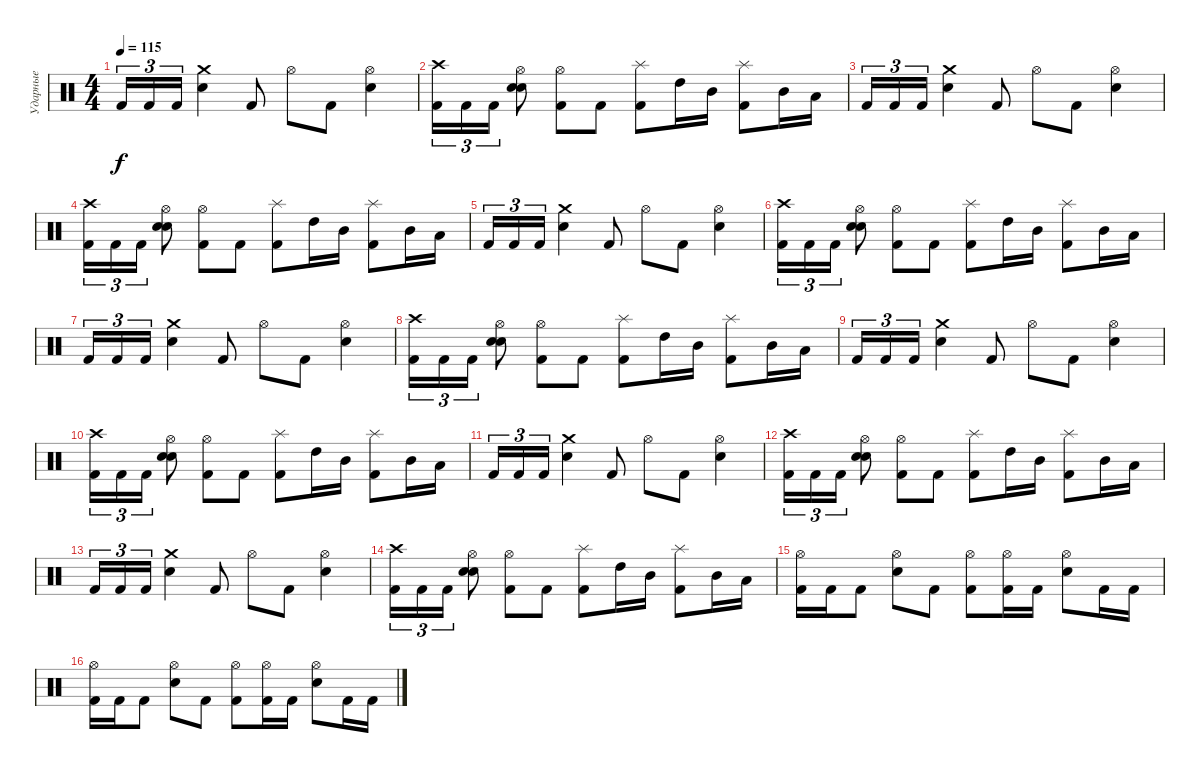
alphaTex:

\track ("Ударные" "Ударные") {instrument percussion}
\staff {score}
\articulation defaults
\ts (4 4)
\tempo 115
\clef neutral
\ks c "Kick (hit) 2".16{tu (3 2) dy f} "Kick (hit) 2".16{tu (3 2)} "Kick (hit) 2".16{tu (3 2)}
("Electric Snare (hit)" "Crash medium (hit)").4 "Kick (hit) 2".8 "Hi-Hat (open)".8 "Kick (hit) 2".8 ("Hi-Hat (open)" "Electric Snare (hit)").4 |
("Kick (hit) 2" "Crash high (hit)").16{tu (3 2)} "Kick (hit) 2".16{tu (3 2)} "Kick (hit) 2".16{tu (3 2)} ("Electric Snare (hit)" "Hi-Hat (open)" "Electric Snare (hit)").8 ("Kick (hit) 2" "Hi-Hat (open)").8 "Kick (hit) 2".8 ("Kick (hit) 2" "Splash (hit)").8 "High Tom (hit)".16 "Mid Tom (hit)".16 ("Kick (hit) 2" "Splash (hit)").8 "Mid Tom (hit)".16 "Low Tom (hit)".16 |
"Kick (hit) 2".16{tu (3 2)} "Kick (hit) 2".16{tu (3 2)} "Kick (hit) 2".16{tu (3 2)} ("Electric Snare (hit)" "Crash medium (hit)").4 "Kick (hit) 2".8 "Hi-Hat (open)".8 "Kick (hit) 2".8 ("Hi-Hat (open)" "Electric Snare (hit)").4 |
("Kick (hit) 2" "Crash high (hit)").16{tu (3 2)} "Kick (hit) 2".16{tu (3 2)} "Kick (hit) 2".16{tu (3 2)} ("Electric Snare (hit)" "Hi-Hat (open)" "Electric Snare (hit)").8 ("Kick (hit) 2" "Hi-Hat (open)").8 "Kick (hit) 2".8 ("Kick (hit) 2" "Splash (hit)").8 "High Tom (hit)".16 "Mid Tom (hit)".16 ("Kick (hit) 2" "Splash (hit)").8 "Mid Tom (hit)".16 "Low Tom (hit)".16 |
"Kick (hit) 2".16{tu (3 2)} "Kick (hit) 2".16{tu (3 2)} "Kick (hit) 2".16{tu (3 2)} ("Electric Snare (hit)" "Crash medium (hit)").4 "Kick (hit) 2".8 "Hi-Hat (open)".8 "Kick (hit) 2".8 ("Hi-Hat (open)" "Electric Snare (hit)").4 |
("Kick (hit) 2" "Crash high (hit)").16{tu (3 2)} "Kick (hit) 2".16{tu (3 2)} "Kick (hit) 2".16{tu (3 2)} ("Electric Snare (hit)" "Hi-Hat (open)" "Electric Snare (hit)").8 ("Kick (hit) 2" "Hi-Hat (open)").8 "Kick (hit) 2".8 ("Kick (hit) 2" "Splash (hit)").8 "High Tom (hit)".16 "Mid Tom (hit)".16 ("Kick (hit) 2" "Splash (hit)").8 "Mid Tom (hit)".16 "Low Tom (hit)".16 |
"Kick (hit) 2".16{tu (3 2)} "Kick (hit) 2".16{tu (3 2)} "Kick (hit) 2".16{tu (3 2)} ("Electric Snare (hit)" "Crash medium (hit)").4 "Kick (hit) 2".8 "Hi-Hat (open)".8 "Kick (hit) 2".8 ("Hi-Hat (open)" "Electric Snare (hit)").4 |
("Kick (hit) 2" "Crash high (hit)").16{tu (3 2)} "Kick (hit) 2".16{tu (3 2)} "Kick (hit) 2".16{tu (3 2)} ("Electric Snare (hit)" "Hi-Hat (open)" "Electric Snare (hit)").8 ("Kick (hit) 2" "Hi-Hat (open)").8 "Kick (hit) 2".8 ("Kick (hit) 2" "Splash (hit)").8 "High Tom (hit)".16 "Mid Tom (hit)".16 ("Kick (hit) 2" "Splash (hit)").8 "Mid Tom (hit)".16 "Low Tom (hit)".16 |
"Kick (hit) 2".16{tu (3 2)} "Kick (hit) 2".16{tu (3 2)} "Kick (hit) 2".16{tu (3 2)} ("Electric Snare (hit)" "Crash medium (hit)").4 "Kick (hit) 2".8 "Hi-Hat (open)".8 "Kick (hit) 2".8 ("Hi-Hat (open)" "Electric Snare (hit)").4 |
("Kick (hit) 2" "Crash high (hit)").16{tu (3 2)} "Kick (hit) 2".16{tu (3 2)} "Kick (hit) 2".16{tu (3 2)} ("Electric Snare (hit)" "Hi-Hat (open)" "Electric Snare (hit)").8 ("Kick (hit) 2" "Hi-Hat (open)").8 "Kick (hit) 2".8 ("Kick (hit) 2" "Splash (hit)").8 "High Tom (hit)".16 "Mid Tom (hit)".16 ("Kick (hit) 2" "Splash (hit)").8 "Mid Tom (hit)".16 "Low Tom (hit)".16 |
"Kick (hit) 2".16{tu (3 2)} "Kick (hit) 2".16{tu (3 2)} "Kick (hit) 2".16{tu (3 2)} ("Electric Snare (hit)" "Crash medium (hit)").4 "Kick (hit) 2".8 "Hi-Hat (open)".8 "Kick (hit) 2".8 ("Hi-Hat (open)" "Electric Snare (hit)").4 |
("Kick (hit) 2" "Crash high (hit)").16{tu (3 2)} "Kick (hit) 2".16{tu (3 2)} "Kick (hit) 2".16{tu (3 2)} ("Electric Snare (hit)" "Hi-Hat (open)" "Electric Snare (hit)").8 ("Kick (hit) 2" "Hi-Hat (open)").8 "Kick (hit) 2".8 ("Kick (hit) 2" "Splash (hit)").8 "High Tom (hit)".16 "Mid Tom (hit)".16 ("Kick (hit) 2" "Splash (hit)").8 "Mid Tom (hit)".16 "Low Tom (hit)".16 |
"Kick (hit) 2".16{tu (3 2)} "Kick (hit) 2".16{tu (3 2)} "Kick (hit) 2".16{tu (3 2)} ("Electric Snare (hit)" "Crash medium (hit)").4 "Kick (hit) 2".8 "Hi-Hat (open)".8 "Kick (hit) 2".8 ("Hi-Hat (open)" "Electric Snare (hit)").4 |
("Kick (hit) 2" "Crash high (hit)").16{tu (3 2)} "Kick (hit) 2".16{tu (3 2)} "Kick (hit) 2".16{tu (3 2)} ("Electric Snare (hit)" "Hi-Hat (open)" "Electric Snare (hit)").8 ("Kick (hit) 2" "Hi-Hat (open)").8 "Kick (hit) 2".8 ("Kick (hit) 2" "Splash (hit)").8 "High Tom (hit)".16 "Mid Tom (hit)".16 ("Kick (hit) 2" "Splash (hit)").8 "Mid Tom (hit)".16 "Low Tom (hit)".16 |
("Kick (hit) 2" "Hi-Hat (open)").16 "Kick (hit) 2".16 "Kick (hit) 2".8 ("Hi-Hat (open)" "Electric Snare (hit)").8 "Kick (hit) 2".8 ("Kick (hit) 2" "Hi-Hat (open)").8 ("Kick (hit) 2" "Hi-Hat (open)").16 "Kick (hit) 2".16 ("Hi-Hat (open)" "Electric Snare (hit)").8 "Kick (hit) 2".16 "Kick (hit) 2".16 |
("Kick (hit) 2" "Hi-Hat (open)").16 "Kick (hit) 2".16 "Kick (hit) 2".8 ("Hi-Hat (open)" "Electric Snare (hit)").8 "Kick (hit) 2".8 ("Kick (hit) 2" "Hi-Hat (open)").8 ("Kick (hit) 2" "Hi-Hat (open)").16 "Kick (hit) 2".16 ("Hi-Hat (open)" "Electric Snare (hit)").8 "Kick (hit) 2".16 "Kick (hit) 2".16
